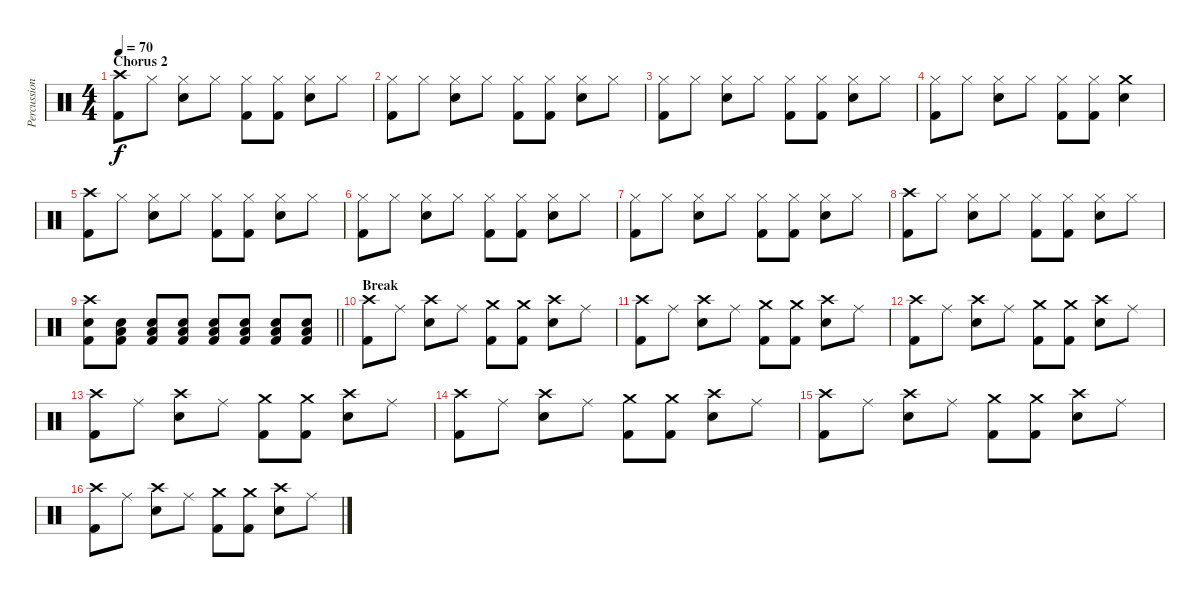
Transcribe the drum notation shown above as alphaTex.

\track ("Percussion" "Percussion") {instrument percussion}
\staff {score}
\articulation defaults
\ts (4 4)
\section ("" "Chorus 2")
\tempo 70
\clef neutral
\ks c
("Crash high (hit)" "Kick (hit) 2").8{dy f} "Hi-Hat (closed)".8 ("Hi-Hat (closed)" "Snare (hit) 2").8 "Hi-Hat (closed)".8 ("Hi-Hat (closed)" "Kick (hit) 2").8 ("Hi-Hat (closed)" "Kick (hit) 2").8 ("Hi-Hat (closed)" "Snare (hit) 2").8 "Hi-Hat (closed)".8 |
("Hi-Hat (closed)" "Kick (hit) 2").8 "Hi-Hat (closed)".8 ("Hi-Hat (closed)" "Snare (hit) 2").8 "Hi-Hat (closed)".8 ("Hi-Hat (closed)" "Kick (hit) 2").8 ("Hi-Hat (closed)" "Kick (hit) 2").8 ("Hi-Hat (closed)" "Snare (hit) 2").8 "Hi-Hat (closed)".8 |
("Hi-Hat (closed)" "Kick (hit) 2").8 "Hi-Hat (closed)".8 ("Hi-Hat (closed)" "Snare (hit) 2").8 "Hi-Hat (closed)".8 ("Hi-Hat (closed)" "Kick (hit) 2").8 ("Hi-Hat (closed)" "Kick (hit) 2").8 ("Hi-Hat (closed)" "Snare (hit) 2").8 "Hi-Hat (closed)".8 |
("Hi-Hat (closed)" "Kick (hit) 2").8 "Hi-Hat (closed)".8 ("Hi-Hat (closed)" "Snare (hit) 2").8 "Hi-Hat (closed)".8 ("Hi-Hat (closed)" "Kick (hit) 2").8 ("Hi-Hat (closed)" "Kick (hit) 2").8 ("Crash medium (hit)" "Snare (hit) 2").4 |
("Crash high (hit)" "Kick (hit) 2").8 "Hi-Hat (closed)".8 ("Hi-Hat (closed)" "Snare (hit) 2").8 "Hi-Hat (closed)".8 ("Hi-Hat (closed)" "Kick (hit) 2").8 ("Hi-Hat (closed)" "Kick (hit) 2").8 ("Hi-Hat (closed)" "Snare (hit) 2").8 "Hi-Hat (closed)".8 |
("Hi-Hat (closed)" "Kick (hit) 2").8 "Hi-Hat (closed)".8 ("Hi-Hat (closed)" "Snare (hit) 2").8 "Hi-Hat (closed)".8 ("Hi-Hat (closed)" "Kick (hit) 2").8 ("Hi-Hat (closed)" "Kick (hit) 2").8 ("Hi-Hat (closed)" "Snare (hit) 2").8 "Hi-Hat (closed)".8 |
("Hi-Hat (closed)" "Kick (hit) 2").8 "Hi-Hat (closed)".8 ("Hi-Hat (closed)" "Snare (hit) 2").8 "Hi-Hat (closed)".8 ("Hi-Hat (closed)" "Kick (hit) 2").8 ("Hi-Hat (closed)" "Kick (hit) 2").8 ("Hi-Hat (closed)" "Snare (hit) 2").8 "Hi-Hat (closed)".8 |
("Crash high (hit)" "Kick (hit) 2").8 "Hi-Hat (closed)".8 ("Hi-Hat (closed)" "Snare (hit) 2").8 "Hi-Hat (closed)".8 ("Hi-Hat (closed)" "Kick (hit) 2").8 ("Hi-Hat (closed)" "Kick (hit) 2").8 ("Hi-Hat (closed)" "Snare (hit) 2").8 "Hi-Hat (closed)".8 |
\barLineRight lightlight
("Crash high (hit)" "Snare (hit) 2" "Kick (hit) 2").8 ("Snare (hit) 2" "Low Tom (hit)" "Kick (hit) 2").8{volume 7} ("Snare (hit) 2" "Low Tom (hit)" "Kick (hit) 2").8{volume 10} ("Snare (hit) 2" "Low Tom (hit)" "Kick (hit) 2").8 ("Snare (hit) 2" "Low Tom (hit)" "Kick (hit) 2").8 ("Snare (hit) 2" "Low Tom (hit)" "Kick (hit) 2").8 ("Snare (hit) 2" "Low Tom (hit)" "Kick (hit) 2").8 ("Snare (hit) 2" "Low Tom (hit)" "Kick (hit) 2").8 |
\section ("" "Break")
("Crash high (hit)" "Kick (hit) 2").8 "Ride (middle)".8 ("Crash high (hit)" "Snare (hit) 2").8 "Ride (middle)".8 ("Crash medium (hit)" "Kick (hit) 2").8 ("Crash medium (hit)" "Kick (hit) 2").8 ("Crash high (hit)" "Snare (hit) 2").8 "Ride (middle)".8 |
("Crash high (hit)" "Kick (hit) 2").8 "Ride (middle)".8 ("Crash high (hit)" "Snare (hit) 2").8 "Ride (middle)".8 ("Crash medium (hit)" "Kick (hit) 2").8 ("Crash medium (hit)" "Kick (hit) 2").8 ("Crash high (hit)" "Snare (hit) 2").8 "Ride (middle)".8 |
("Crash high (hit)" "Kick (hit) 2").8 "Ride (middle)".8 ("Crash high (hit)" "Snare (hit) 2").8 "Ride (middle)".8 ("Crash medium (hit)" "Kick (hit) 2").8 ("Crash medium (hit)" "Kick (hit) 2").8 ("Crash high (hit)" "Snare (hit) 2").8 "Ride (middle)".8 |
("Crash high (hit)" "Kick (hit) 2").8 "Ride (middle)".8 ("Crash high (hit)" "Snare (hit) 2").8 "Ride (middle)".8 ("Crash medium (hit)" "Kick (hit) 2").8 ("Crash medium (hit)" "Kick (hit) 2").8 ("Crash high (hit)" "Snare (hit) 2").8 "Ride (middle)".8 |
("Crash high (hit)" "Kick (hit) 2").8 "Ride (middle)".8 ("Crash high (hit)" "Snare (hit) 2").8 "Ride (middle)".8 ("Crash medium (hit)" "Kick (hit) 2").8 ("Crash medium (hit)" "Kick (hit) 2").8 ("Crash high (hit)" "Snare (hit) 2").8 "Ride (middle)".8 |
("Crash high (hit)" "Kick (hit) 2").8 "Ride (middle)".8 ("Crash high (hit)" "Snare (hit) 2").8 "Ride (middle)".8 ("Crash medium (hit)" "Kick (hit) 2").8 ("Crash medium (hit)" "Kick (hit) 2").8 ("Crash high (hit)" "Snare (hit) 2").8 "Ride (middle)".8 |
("Crash high (hit)" "Kick (hit) 2").8 "Ride (middle)".8 ("Crash high (hit)" "Snare (hit) 2").8 "Ride (middle)".8 ("Crash medium (hit)" "Kick (hit) 2").8 ("Crash medium (hit)" "Kick (hit) 2").8 ("Crash high (hit)" "Snare (hit) 2").8 "Ride (middle)".8
